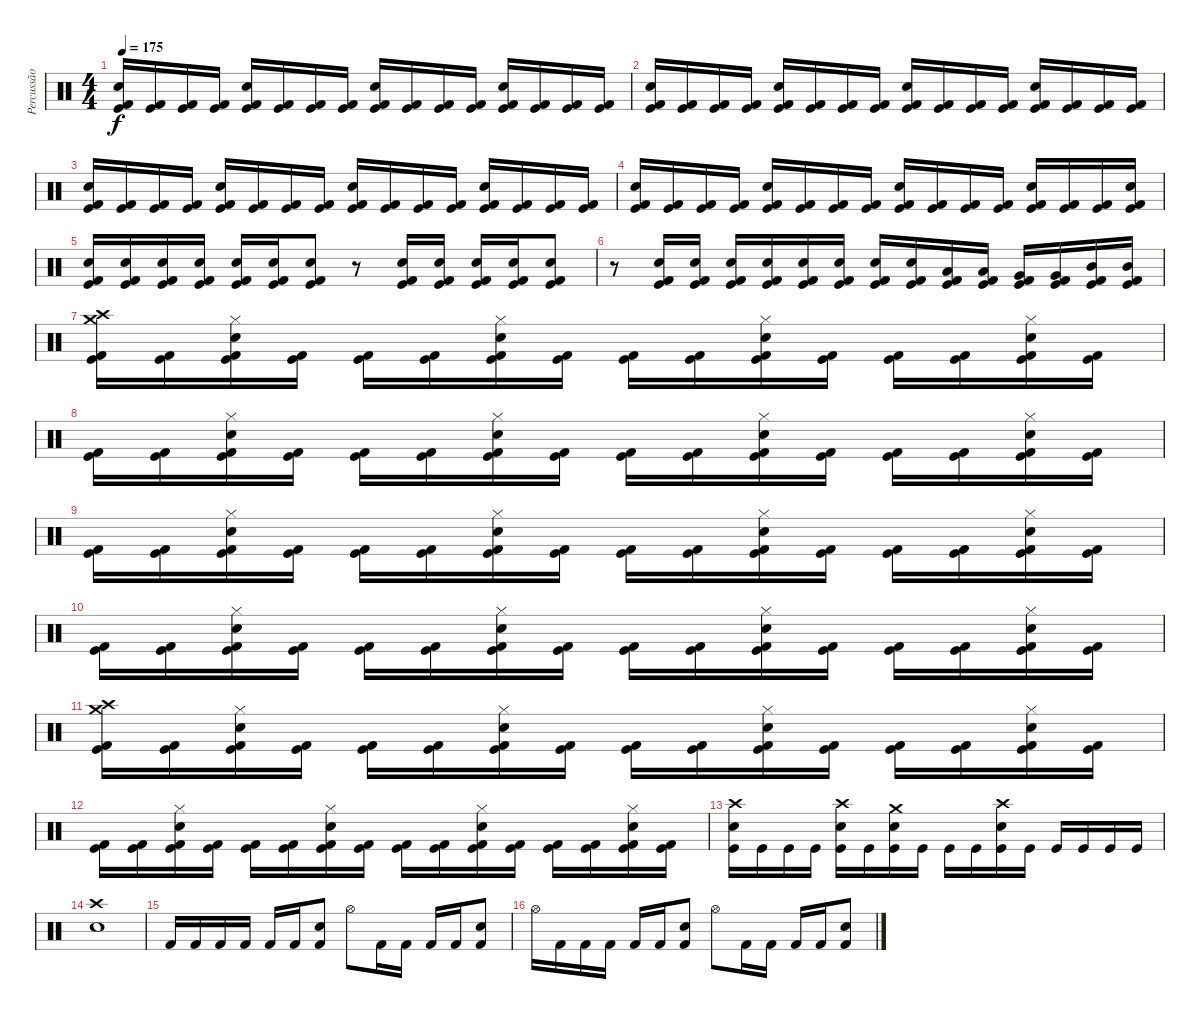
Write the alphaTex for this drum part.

\track ("Percussão" "Percussão") {instrument percussion}
\staff {score}
\articulation defaults
\ts (4 4)
\tempo 175
\clef neutral
\ks c
("Electric Snare (hit)" "Kick (hit)" "Kick (hit) 2").16{dy f} ("Kick (hit)" "Kick (hit) 2").16 ("Kick (hit)" "Kick (hit) 2").16 ("Kick (hit)" "Kick (hit) 2").16 ("Electric Snare (hit)" "Kick (hit)" "Kick (hit) 2").16 ("Kick (hit)" "Kick (hit) 2").16 ("Kick (hit)" "Kick (hit) 2").16 ("Kick (hit)" "Kick (hit) 2").16 ("Electric Snare (hit)" "Kick (hit)" "Kick (hit) 2").16 ("Kick (hit)" "Kick (hit) 2").16 ("Kick (hit)" "Kick (hit) 2").16 ("Kick (hit)" "Kick (hit) 2").16 ("Electric Snare (hit)" "Kick (hit)" "Kick (hit) 2").16 ("Kick (hit)" "Kick (hit) 2").16 ("Kick (hit)" "Kick (hit) 2").16 ("Kick (hit)" "Kick (hit) 2").16 |
("Electric Snare (hit)" "Kick (hit)" "Kick (hit) 2").16 ("Kick (hit)" "Kick (hit) 2").16 ("Kick (hit)" "Kick (hit) 2").16 ("Kick (hit)" "Kick (hit) 2").16 ("Electric Snare (hit)" "Kick (hit)" "Kick (hit) 2").16 ("Kick (hit)" "Kick (hit) 2").16 ("Kick (hit)" "Kick (hit) 2").16 ("Kick (hit)" "Kick (hit) 2").16 ("Electric Snare (hit)" "Kick (hit)" "Kick (hit) 2").16 ("Kick (hit)" "Kick (hit) 2").16 ("Kick (hit)" "Kick (hit) 2").16 ("Kick (hit)" "Kick (hit) 2").16 ("Electric Snare (hit)" "Kick (hit)" "Kick (hit) 2").16 ("Kick (hit)" "Kick (hit) 2").16 ("Kick (hit)" "Kick (hit) 2").16 ("Kick (hit)" "Kick (hit) 2").16 |
("Electric Snare (hit)" "Kick (hit)" "Kick (hit) 2").16 ("Kick (hit)" "Kick (hit) 2").16 ("Kick (hit)" "Kick (hit) 2").16 ("Kick (hit)" "Kick (hit) 2").16 ("Electric Snare (hit)" "Kick (hit)" "Kick (hit) 2").16 ("Kick (hit)" "Kick (hit) 2").16 ("Kick (hit)" "Kick (hit) 2").16 ("Kick (hit)" "Kick (hit) 2").16 ("Electric Snare (hit)" "Kick (hit)" "Kick (hit) 2").16 ("Kick (hit)" "Kick (hit) 2").16 ("Kick (hit)" "Kick (hit) 2").16 ("Kick (hit)" "Kick (hit) 2").16 ("Electric Snare (hit)" "Kick (hit)" "Kick (hit) 2").16 ("Kick (hit)" "Kick (hit) 2").16 ("Kick (hit)" "Kick (hit) 2").16 ("Kick (hit)" "Kick (hit) 2").16 |
("Electric Snare (hit)" "Kick (hit)" "Kick (hit) 2").16 ("Kick (hit)" "Kick (hit) 2").16 ("Kick (hit)" "Kick (hit) 2").16 ("Kick (hit)" "Kick (hit) 2").16 ("Electric Snare (hit)" "Kick (hit)" "Kick (hit) 2").16 ("Kick (hit)" "Kick (hit) 2").16 ("Kick (hit)" "Kick (hit) 2").16 ("Kick (hit)" "Kick (hit) 2").16 ("Electric Snare (hit)" "Kick (hit)" "Kick (hit) 2").16 ("Kick (hit)" "Kick (hit) 2").16 ("Kick (hit)" "Kick (hit) 2").16 ("Kick (hit)" "Kick (hit) 2").16 ("Electric Snare (hit)" "Kick (hit)" "Kick (hit) 2").16 ("Kick (hit)" "Kick (hit) 2").16 ("Kick (hit)" "Kick (hit) 2").16 ("Electric Snare (hit)" "Kick (hit)" "Kick (hit) 2").16 |
("Electric Snare (hit)" "Kick (hit)" "Kick (hit) 2").16 ("Electric Snare (hit)" "Kick (hit)" "Kick (hit) 2").16 ("Electric Snare (hit)" "Kick (hit)" "Kick (hit) 2").16 ("Electric Snare (hit)" "Kick (hit)" "Kick (hit) 2").16 ("Electric Snare (hit)" "Kick (hit)" "Kick (hit) 2").16 ("Electric Snare (hit)" "Kick (hit)" "Kick (hit) 2").16 ("Electric Snare (hit)" "Kick (hit)" "Kick (hit) 2").8 r.8 ("Electric Snare (hit)" "Kick (hit)" "Kick (hit) 2").16 ("Electric Snare (hit)" "Kick (hit)" "Kick (hit) 2").16 ("Electric Snare (hit)" "Kick (hit)" "Kick (hit) 2").16 ("Electric Snare (hit)" "Kick (hit)" "Kick (hit) 2").16 ("Electric Snare (hit)" "Kick (hit)" "Kick (hit) 2").8 |
r.8 ("Electric Snare (hit)" "Kick (hit)" "Kick (hit) 2").16 ("Electric Snare (hit)" "Kick (hit)" "Kick (hit) 2").16 ("Electric Snare (hit)" "Kick (hit)" "Kick (hit) 2").16 ("Electric Snare (hit)" "Kick (hit)" "Kick (hit) 2").16 ("Electric Snare (hit)" "Kick (hit)" "Kick (hit) 2").16 ("Electric Snare (hit)" "Kick (hit)" "Kick (hit) 2").16 ("Electric Snare (hit)" "Kick (hit) 2" "Kick (hit)").16 ("Electric Snare (hit)" "Kick (hit) 2" "Kick (hit)").16 ("Low Tom (hit)" "Kick (hit) 2" "Kick (hit)").16 ("Low Tom (hit)" "Kick (hit) 2" "Kick (hit)").16 ("Very Low Tom (hit)" "Kick (hit) 2" "Kick (hit)").16 ("Very Low Tom (hit)" "Kick (hit) 2" "Kick (hit)").16 ("Mid Tom (hit)" "Kick (hit) 2" "Kick (hit)").16 ("Mid Tom (hit)" "Kick (hit) 2" "Kick (hit)").16 |
("Crash high (hit)" "Crash medium (hit)" "Kick (hit)" "Kick (hit) 2").16 ("Kick (hit)" "Kick (hit) 2").16 ("Hi-Hat (closed)" "Electric Snare (hit)" "Kick (hit)" "Kick (hit) 2").16 ("Kick (hit)" "Kick (hit) 2").16 ("Kick (hit)" "Kick (hit) 2").16 ("Kick (hit)" "Kick (hit) 2").16 ("Hi-Hat (closed)" "Electric Snare (hit)" "Kick (hit)" "Kick (hit) 2").16 ("Kick (hit)" "Kick (hit) 2").16 ("Kick (hit)" "Kick (hit) 2").16 ("Kick (hit)" "Kick (hit) 2").16 ("Hi-Hat (closed)" "Electric Snare (hit)" "Kick (hit)" "Kick (hit) 2").16 ("Kick (hit)" "Kick (hit) 2").16 ("Kick (hit)" "Kick (hit) 2").16 ("Kick (hit)" "Kick (hit) 2").16 ("Hi-Hat (closed)" "Electric Snare (hit)" "Kick (hit)" "Kick (hit) 2").16 ("Kick (hit)" "Kick (hit) 2").16 |
("Kick (hit)" "Kick (hit) 2").16 ("Kick (hit)" "Kick (hit) 2").16 ("Hi-Hat (closed)" "Electric Snare (hit)" "Kick (hit)" "Kick (hit) 2").16 ("Kick (hit)" "Kick (hit) 2").16 ("Kick (hit)" "Kick (hit) 2").16 ("Kick (hit)" "Kick (hit) 2").16 ("Hi-Hat (closed)" "Electric Snare (hit)" "Kick (hit)" "Kick (hit) 2").16 ("Kick (hit)" "Kick (hit) 2").16 ("Kick (hit)" "Kick (hit) 2").16 ("Kick (hit)" "Kick (hit) 2").16 ("Hi-Hat (closed)" "Electric Snare (hit)" "Kick (hit)" "Kick (hit) 2").16 ("Kick (hit)" "Kick (hit) 2").16 ("Kick (hit)" "Kick (hit) 2").16 ("Kick (hit)" "Kick (hit) 2").16 ("Hi-Hat (closed)" "Electric Snare (hit)" "Kick (hit)" "Kick (hit) 2").16 ("Kick (hit)" "Kick (hit) 2").16 |
("Kick (hit)" "Kick (hit) 2").16 ("Kick (hit)" "Kick (hit) 2").16 ("Hi-Hat (closed)" "Electric Snare (hit)" "Kick (hit)" "Kick (hit) 2").16 ("Kick (hit)" "Kick (hit) 2").16 ("Kick (hit)" "Kick (hit) 2").16 ("Kick (hit)" "Kick (hit) 2").16 ("Hi-Hat (closed)" "Electric Snare (hit)" "Kick (hit)" "Kick (hit) 2").16 ("Kick (hit)" "Kick (hit) 2").16 ("Kick (hit)" "Kick (hit) 2").16 ("Kick (hit)" "Kick (hit) 2").16 ("Hi-Hat (closed)" "Electric Snare (hit)" "Kick (hit)" "Kick (hit) 2").16 ("Kick (hit)" "Kick (hit) 2").16 ("Kick (hit)" "Kick (hit) 2").16 ("Kick (hit)" "Kick (hit) 2").16 ("Hi-Hat (closed)" "Electric Snare (hit)" "Kick (hit)" "Kick (hit) 2").16 ("Kick (hit)" "Kick (hit) 2").16 |
("Kick (hit)" "Kick (hit) 2").16 ("Kick (hit)" "Kick (hit) 2").16 ("Hi-Hat (closed)" "Electric Snare (hit)" "Kick (hit)" "Kick (hit) 2").16 ("Kick (hit)" "Kick (hit) 2").16 ("Kick (hit)" "Kick (hit) 2").16 ("Kick (hit)" "Kick (hit) 2").16 ("Hi-Hat (closed)" "Electric Snare (hit)" "Kick (hit)" "Kick (hit) 2").16 ("Kick (hit)" "Kick (hit) 2").16 ("Kick (hit)" "Kick (hit) 2").16 ("Kick (hit)" "Kick (hit) 2").16 ("Hi-Hat (closed)" "Electric Snare (hit)" "Kick (hit)" "Kick (hit) 2").16 ("Kick (hit)" "Kick (hit) 2").16 ("Kick (hit)" "Kick (hit) 2").16 ("Kick (hit)" "Kick (hit) 2").16 ("Hi-Hat (closed)" "Electric Snare (hit)" "Kick (hit)" "Kick (hit) 2").16 ("Kick (hit)" "Kick (hit) 2").16 |
("Crash high (hit)" "Crash medium (hit)" "Kick (hit)" "Kick (hit) 2").16 ("Kick (hit)" "Kick (hit) 2").16 ("Hi-Hat (closed)" "Electric Snare (hit)" "Kick (hit)" "Kick (hit) 2").16 ("Kick (hit)" "Kick (hit) 2").16 ("Kick (hit)" "Kick (hit) 2").16 ("Kick (hit)" "Kick (hit) 2").16 ("Hi-Hat (closed)" "Electric Snare (hit)" "Kick (hit)" "Kick (hit) 2").16 ("Kick (hit)" "Kick (hit) 2").16 ("Kick (hit)" "Kick (hit) 2").16 ("Kick (hit)" "Kick (hit) 2").16 ("Hi-Hat (closed)" "Electric Snare (hit)" "Kick (hit)" "Kick (hit) 2").16 ("Kick (hit)" "Kick (hit) 2").16 ("Kick (hit)" "Kick (hit) 2").16 ("Kick (hit)" "Kick (hit) 2").16 ("Hi-Hat (closed)" "Electric Snare (hit)" "Kick (hit)" "Kick (hit) 2").16 ("Kick (hit)" "Kick (hit) 2").16 |
("Kick (hit)" "Kick (hit) 2").16 ("Kick (hit)" "Kick (hit) 2").16 ("Hi-Hat (closed)" "Electric Snare (hit)" "Kick (hit)" "Kick (hit) 2").16 ("Kick (hit)" "Kick (hit) 2").16 ("Kick (hit)" "Kick (hit) 2").16 ("Kick (hit)" "Kick (hit) 2").16 ("Hi-Hat (closed)" "Electric Snare (hit)" "Kick (hit)" "Kick (hit) 2").16 ("Kick (hit)" "Kick (hit) 2").16 ("Kick (hit)" "Kick (hit) 2").16 ("Kick (hit)" "Kick (hit) 2").16 ("Hi-Hat (closed)" "Electric Snare (hit)" "Kick (hit)" "Kick (hit) 2").16 ("Kick (hit)" "Kick (hit) 2").16 ("Kick (hit)" "Kick (hit) 2").16 ("Kick (hit)" "Kick (hit) 2").16 ("Hi-Hat (closed)" "Electric Snare (hit)" "Kick (hit)" "Kick (hit) 2").16 ("Kick (hit)" "Kick (hit) 2").16 |
("Electric Snare (hit)" "Kick (hit)" "Crash high (hit)").16 "Kick (hit)".16 "Kick (hit)".16 "Kick (hit)".16 ("Electric Snare (hit)" "Kick (hit)" "Crash high (hit)").16 "Kick (hit)".16 ("Electric Snare (hit)" "Kick (hit)" "Crash medium (hit)").16 "Kick (hit)".16 "Kick (hit)".16 "Kick (hit)".16 ("Electric Snare (hit)" "Kick (hit)" "Crash high (hit)").16 "Kick (hit)".16 "Kick (hit)".16 "Kick (hit)".16 "Kick (hit)".16 "Kick (hit)".16 |
("Crash high (hit)" "Electric Snare (hit)").1 |
"Kick (hit) 2".16 "Kick (hit) 2".16 "Kick (hit) 2".16 "Kick (hit) 2".16 "Kick (hit) 2".16 "Kick (hit) 2".16 ("Electric Snare (hit)" "Kick (hit) 2").8 "Hi-Hat (open)".8 "Kick (hit) 2".16 "Kick (hit) 2".16 "Kick (hit) 2".16 "Kick (hit) 2".16 ("Electric Snare (hit)" "Kick (hit) 2").8 |
"Hi-Hat (open)".16 "Kick (hit) 2".16 "Kick (hit) 2".16 "Kick (hit) 2".16 "Kick (hit) 2".16 "Kick (hit) 2".16 ("Electric Snare (hit)" "Kick (hit) 2").8 "Hi-Hat (open)".8 "Kick (hit) 2".16 "Kick (hit) 2".16 "Kick (hit) 2".16 "Kick (hit) 2".16 ("Electric Snare (hit)" "Kick (hit) 2").8
